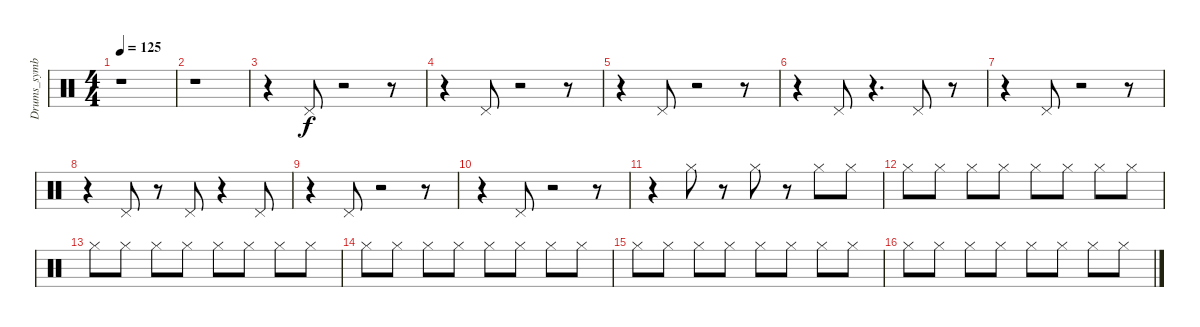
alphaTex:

\track ("Drums_symbal" "Drums_symb") {instrument percussion}
\staff {score}
\articulation defaults
\ts (4 4)
\tempo 125
\clef neutral
\ks c
r.1{dy f} |
r.1 |
r.4 "Pedal Hi-Hat (hit)".8 r.2 r.8 |
r.4 "Pedal Hi-Hat (hit)".8 r.2 r.8 |
r.4 "Pedal Hi-Hat (hit)".8 r.2 r.8 |
r.4 "Pedal Hi-Hat (hit)".8 r.4{d} "Pedal Hi-Hat (hit)".8 r.8 |
r.4 "Pedal Hi-Hat (hit)".8 r.2 r.8 |
r.4 "Pedal Hi-Hat (hit)".8 r.8 "Pedal Hi-Hat (hit)".8 r.4 "Pedal Hi-Hat (hit)".8 |
r.4 "Pedal Hi-Hat (hit)".8 r.2 r.8 |
r.4 "Pedal Hi-Hat (hit)".8 r.2 r.8 |
r.4 "Hi-Hat (closed)".8 r.8 "Hi-Hat (closed)".8 r.8 "Hi-Hat (closed)".8 "Hi-Hat (closed)".8 |
"Hi-Hat (closed)".8 "Hi-Hat (closed)".8 "Hi-Hat (closed)".8 "Hi-Hat (closed)".8 "Hi-Hat (closed)".8 "Hi-Hat (closed)".8 "Hi-Hat (closed)".8 "Hi-Hat (closed)".8 |
"Hi-Hat (closed)".8 "Hi-Hat (closed)".8 "Hi-Hat (closed)".8 "Hi-Hat (closed)".8 "Hi-Hat (closed)".8 "Hi-Hat (closed)".8 "Hi-Hat (closed)".8 "Hi-Hat (closed)".8 |
"Hi-Hat (closed)".8 "Hi-Hat (closed)".8 "Hi-Hat (closed)".8 "Hi-Hat (closed)".8 "Hi-Hat (closed)".8 "Hi-Hat (closed)".8 "Hi-Hat (closed)".8 "Hi-Hat (closed)".8 |
"Hi-Hat (closed)".8 "Hi-Hat (closed)".8 "Hi-Hat (closed)".8 "Hi-Hat (closed)".8 "Hi-Hat (closed)".8 "Hi-Hat (closed)".8 "Hi-Hat (closed)".8 "Hi-Hat (closed)".8 |
"Hi-Hat (closed)".8 "Hi-Hat (closed)".8 "Hi-Hat (closed)".8 "Hi-Hat (closed)".8 "Hi-Hat (closed)".8 "Hi-Hat (closed)".8 "Hi-Hat (closed)".8 "Hi-Hat (closed)".8
